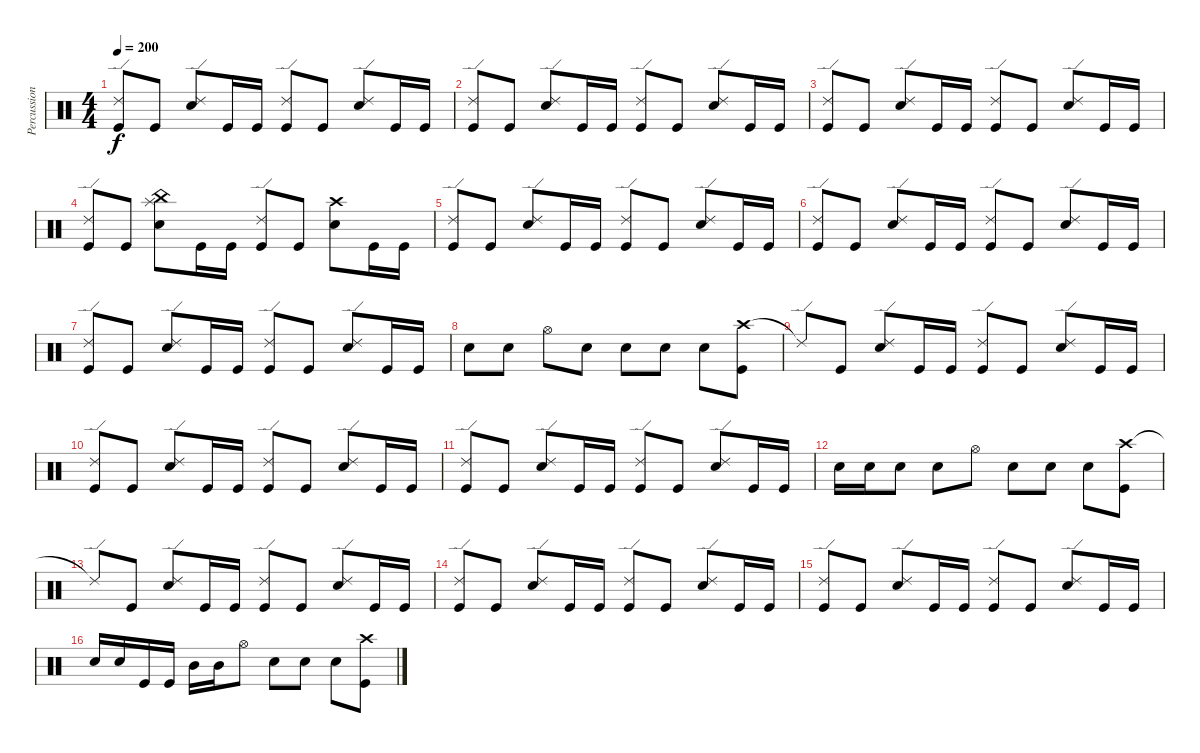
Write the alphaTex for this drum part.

\track ("Percussioni" "Percussion") {instrument percussion}
\staff {score}
\articulation defaults
\ts (4 4)
\tempo 200
\clef neutral
\ks c
("Ride (edge) 2" "Kick (hit)").8{dy f} "Kick (hit)".8 ("Ride (edge) 2" "Electric Snare (hit)").8 "Kick (hit)".16 "Kick (hit)".16 ("Ride (edge) 2" "Kick (hit)").8 "Kick (hit)".8 ("Ride (edge) 2" "Electric Snare (hit)").8 "Kick (hit)".16 "Kick (hit)".16 |
("Ride (edge) 2" "Kick (hit)").8 "Kick (hit)".8 ("Ride (edge) 2" "Electric Snare (hit)").8 "Kick (hit)".16 "Kick (hit)".16 ("Ride (edge) 2" "Kick (hit)").8 "Kick (hit)".8 ("Ride (edge) 2" "Electric Snare (hit)").8 "Kick (hit)".16 "Kick (hit)".16 |
("Ride (edge) 2" "Kick (hit)").8 "Kick (hit)".8 ("Ride (edge) 2" "Electric Snare (hit)").8 "Kick (hit)".16 "Kick (hit)".16 ("Ride (edge) 2" "Kick (hit)").8 "Kick (hit)".8 ("Ride (edge) 2" "Electric Snare (hit)").8 "Kick (hit)".16 "Kick (hit)".16 |
("Ride (edge) 2" "Kick (hit)").8 "Kick (hit)".8 ("Splash (hit)" "China (hit)" "Electric Snare (hit)").8 "Kick (hit)".16 "Kick (hit)".16 ("Ride (edge) 2" "Kick (hit)").8 "Kick (hit)".8 ("Crash high (hit)" "Electric Snare (hit)").8 "Kick (hit)".16 "Kick (hit)".16 |
("Ride (edge) 2" "Kick (hit)").8 "Kick (hit)".8 ("Ride (edge) 2" "Electric Snare (hit)").8 "Kick (hit)".16 "Kick (hit)".16 ("Ride (edge) 2" "Kick (hit)").8 "Kick (hit)".8 ("Ride (edge) 2" "Electric Snare (hit)").8 "Kick (hit)".16 "Kick (hit)".16 |
("Ride (edge) 2" "Kick (hit)").8 "Kick (hit)".8 ("Ride (edge) 2" "Electric Snare (hit)").8 "Kick (hit)".16 "Kick (hit)".16 ("Ride (edge) 2" "Kick (hit)").8 "Kick (hit)".8 ("Ride (edge) 2" "Electric Snare (hit)").8 "Kick (hit)".16 "Kick (hit)".16 |
("Ride (edge) 2" "Kick (hit)").8 "Kick (hit)".8 ("Ride (edge) 2" "Electric Snare (hit)").8 "Kick (hit)".16 "Kick (hit)".16 ("Ride (edge) 2" "Kick (hit)").8 "Kick (hit)".8 ("Ride (edge) 2" "Electric Snare (hit)").8 "Kick (hit)".16 "Kick (hit)".16 |
"Electric Snare (hit)".8 "Electric Snare (hit)".8 "Hi-Hat (open)".8 "Electric Snare (hit)".8 "Electric Snare (hit)".8 "Electric Snare (hit)".8 "Electric Snare (hit)".8 ("Crash high (hit)" "Kick (hit)").8 |
"Ride (edge) 2"{t}.8 "Kick (hit)".8 ("Ride (edge) 2" "Electric Snare (hit)").8 "Kick (hit)".16 "Kick (hit)".16 ("Ride (edge) 2" "Kick (hit)").8 "Kick (hit)".8 ("Ride (edge) 2" "Electric Snare (hit)").8 "Kick (hit)".16 "Kick (hit)".16 |
("Ride (edge) 2" "Kick (hit)").8 "Kick (hit)".8 ("Ride (edge) 2" "Electric Snare (hit)").8 "Kick (hit)".16 "Kick (hit)".16 ("Ride (edge) 2" "Kick (hit)").8 "Kick (hit)".8 ("Ride (edge) 2" "Electric Snare (hit)").8 "Kick (hit)".16 "Kick (hit)".16 |
("Ride (edge) 2" "Kick (hit)").8 "Kick (hit)".8 ("Ride (edge) 2" "Electric Snare (hit)").8 "Kick (hit)".16 "Kick (hit)".16 ("Ride (edge) 2" "Kick (hit)").8 "Kick (hit)".8 ("Ride (edge) 2" "Electric Snare (hit)").8 "Kick (hit)".16 "Kick (hit)".16 |
"Electric Snare (hit)".16 "Electric Snare (hit)".16 "Electric Snare (hit)".8 "Electric Snare (hit)".8 "Hi-Hat (open)".8 "Electric Snare (hit)".8 "Electric Snare (hit)".8 "Electric Snare (hit)".8 ("Crash high (hit)" "Kick (hit)").8 |
"Ride (edge) 2"{t}.8 "Kick (hit)".8 ("Ride (edge) 2" "Electric Snare (hit)").8 "Kick (hit)".16 "Kick (hit)".16 ("Ride (edge) 2" "Kick (hit)").8 "Kick (hit)".8 ("Ride (edge) 2" "Electric Snare (hit)").8 "Kick (hit)".16 "Kick (hit)".16 |
("Ride (edge) 2" "Kick (hit)").8 "Kick (hit)".8 ("Ride (edge) 2" "Electric Snare (hit)").8 "Kick (hit)".16 "Kick (hit)".16 ("Ride (edge) 2" "Kick (hit)").8 "Kick (hit)".8 ("Ride (edge) 2" "Electric Snare (hit)").8 "Kick (hit)".16 "Kick (hit)".16 |
("Ride (edge) 2" "Kick (hit)").8 "Kick (hit)".8 ("Ride (edge) 2" "Electric Snare (hit)").8 "Kick (hit)".16 "Kick (hit)".16 ("Ride (edge) 2" "Kick (hit)").8 "Kick (hit)".8 ("Ride (edge) 2" "Electric Snare (hit)").8 "Kick (hit)".16 "Kick (hit)".16 |
"Electric Snare (hit)".16 "Electric Snare (hit)".16 "Kick (hit)".16 "Kick (hit)".16 "Mid Tom (hit)".16 "Mid Tom (hit)".16 "Hi-Hat (open)".8 "Electric Snare (hit)".8 "Electric Snare (hit)".8 "Electric Snare (hit)".8 ("Crash high (hit)" "Kick (hit)").8
